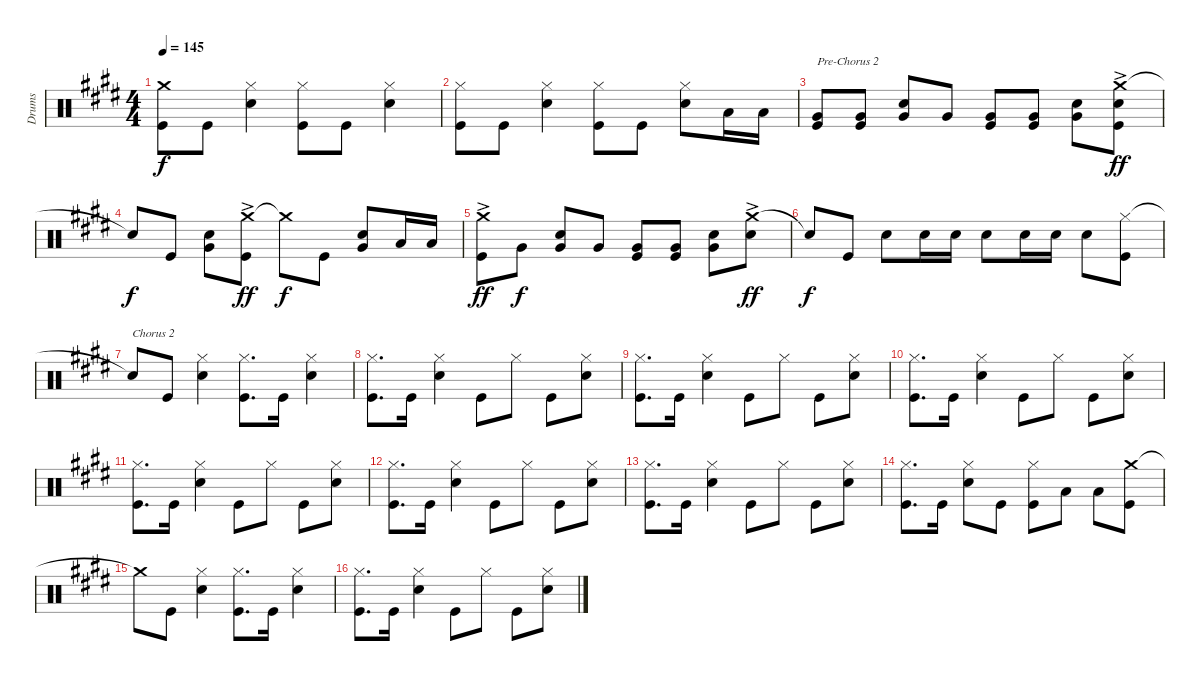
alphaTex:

\track ("Drums" "Drums") {instrument percussion}
\staff {score}
\articulation defaults
\ts (4 4)
\tempo 145
\clef neutral
\ks e
("Crash medium (hit)" "Kick (hit)").8{dy f} "Kick (hit)".8 ("Hi-Hat (closed)" "Snare (hit) 2").4 ("Hi-Hat (closed)" "Kick (hit)").8 "Kick (hit)".8 ("Hi-Hat (closed)" "Snare (hit) 2").4 |
("Hi-Hat (closed)" "Kick (hit)").8 "Kick (hit)".8 ("Hi-Hat (closed)" "Snare (hit) 2").4 ("Hi-Hat (closed)" "Kick (hit)").8 "Kick (hit)".8 ("Hi-Hat (closed)" "Snare (hit) 2").8 "Low Tom (hit)".16 "Low Tom (hit)".16 |
("Very Low Tom (hit)" "Kick (hit)").8{txt "Pre-Chorus 2"} ("Very Low Tom (hit)" "Kick (hit)").8 ("Snare (hit) 2" "Very Low Tom (hit)").8 "Very Low Tom (hit)".8 ("Very Low Tom (hit)" "Kick (hit)").8 ("Very Low Tom (hit)" "Kick (hit)").8 ("Snare (hit) 2" "Very Low Tom (hit)").8 ("Crash medium (hit)"{ac} "Snare (hit) 2" "Kick (hit)").8{dy ff} |
"Snare (hit)"{t}.8{dy f} "Kick (hit)".8 ("Snare (hit) 2" "Very Low Tom (hit)").8 ("Crash medium (hit)"{ac} "Kick (hit)").8{dy ff} "Crash medium (hit)"{t}.8{dy f} "Kick (hit)".8 ("Snare (hit) 2" "Very Low Tom (hit)").8 "Low Tom (hit)".16 "Low Tom (hit)".16 |
("Crash medium (hit)"{ac} "Kick (hit)").8{dy ff} "Very Low Tom (hit)".8{dy f} ("Snare (hit) 2" "Very Low Tom (hit)").8 "Very Low Tom (hit)".8 ("Very Low Tom (hit)" "Kick (hit)").8 ("Very Low Tom (hit)" "Kick (hit)").8 ("Snare (hit) 2" "Very Low Tom (hit)").8 ("Crash medium (hit)"{ac} "Snare (hit) 2").8{dy ff} |
"Snare (hit)"{t}.8{dy f} "Kick (hit)".8 "Snare (hit) 2".8 "Snare (hit) 2".16 "Snare (hit) 2".16 "Snare (hit) 2".8 "Snare (hit) 2".16 "Snare (hit) 2".16 "Snare (hit) 2".8 ("Hi-Hat (closed)" "Kick (hit)").8 |
"Snare (hit)"{t}.8{txt "Chorus 2"} "Kick (hit)".8 ("Hi-Hat (closed)" "Snare (hit) 2").4 ("Hi-Hat (closed)" "Kick (hit)").8{d} "Kick (hit)".16 ("Hi-Hat (closed)" "Snare (hit) 2").4 |
("Hi-Hat (closed)" "Kick (hit)").8{d} "Kick (hit)".16 ("Hi-Hat (closed)" "Snare (hit) 2").4 "Kick (hit)".8 "Hi-Hat (closed)".8 "Kick (hit)".8 ("Hi-Hat (closed)" "Snare (hit) 2").8 |
("Hi-Hat (closed)" "Kick (hit)").8{d} "Kick (hit)".16 ("Hi-Hat (closed)" "Snare (hit) 2").4 "Kick (hit)".8 "Hi-Hat (closed)".8 "Kick (hit)".8 ("Hi-Hat (closed)" "Snare (hit) 2").8 |
("Hi-Hat (closed)" "Kick (hit)").8{d} "Kick (hit)".16 ("Hi-Hat (closed)" "Snare (hit) 2").4 "Kick (hit)".8 "Hi-Hat (closed)".8 "Kick (hit)".8 ("Hi-Hat (closed)" "Snare (hit) 2").8 |
("Hi-Hat (closed)" "Kick (hit)").8{d} "Kick (hit)".16 ("Hi-Hat (closed)" "Snare (hit) 2").4 "Kick (hit)".8 "Hi-Hat (closed)".8 "Kick (hit)".8 ("Hi-Hat (closed)" "Snare (hit) 2").8 |
("Hi-Hat (closed)" "Kick (hit)").8{d} "Kick (hit)".16 ("Hi-Hat (closed)" "Snare (hit) 2").4 "Kick (hit)".8 "Hi-Hat (closed)".8 "Kick (hit)".8 ("Hi-Hat (closed)" "Snare (hit) 2").8 |
("Hi-Hat (closed)" "Kick (hit)").8{d} "Kick (hit)".16 ("Hi-Hat (closed)" "Snare (hit) 2").4 "Kick (hit)".8 "Hi-Hat (closed)".8 "Kick (hit)".8 ("Hi-Hat (closed)" "Snare (hit) 2").8 |
("Hi-Hat (closed)" "Kick (hit)").8{d} "Kick (hit)".16 ("Hi-Hat (closed)" "Snare (hit) 2").8 "Kick (hit)".8 ("Hi-Hat (closed)" "Kick (hit)").8 "Low Tom (hit)".8 "Low Tom (hit)".8 ("Crash medium (hit)" "Kick (hit)").8 |
"Crash medium (hit)"{t}.8 "Kick (hit)".8 ("Hi-Hat (closed)" "Snare (hit) 2").4 ("Hi-Hat (closed)" "Kick (hit)").8{d} "Kick (hit)".16 ("Hi-Hat (closed)" "Snare (hit) 2").4 |
("Hi-Hat (closed)" "Kick (hit)").8{d} "Kick (hit)".16 ("Hi-Hat (closed)" "Snare (hit) 2").4 "Kick (hit)".8 "Hi-Hat (closed)".8 "Kick (hit)".8 ("Hi-Hat (closed)" "Snare (hit) 2").8
